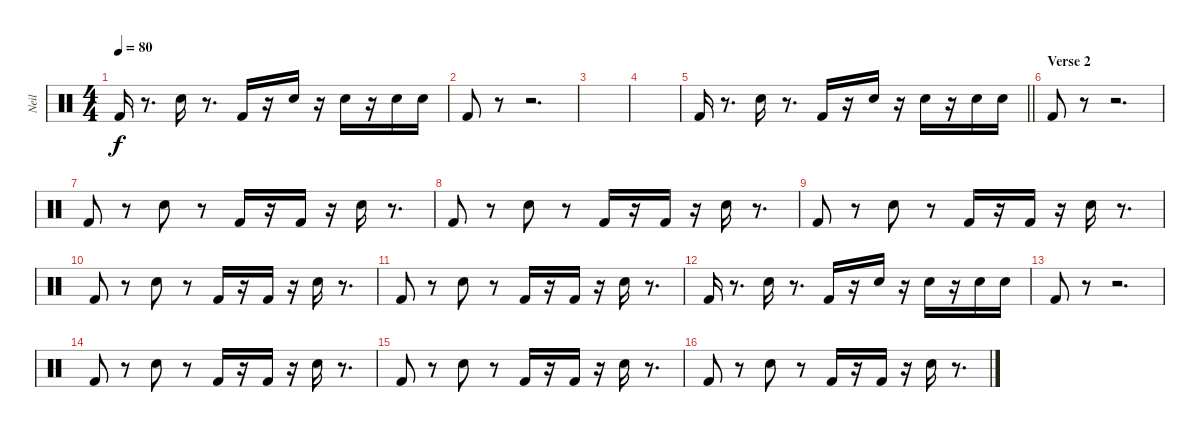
\track ("Neil" "Neil") {instrument percussion}
\staff {score}
\articulation defaults
\ts (4 4)
\tempo 80
\clef neutral
\ks c "Kick (hit) 2".16{dy f}
r.8{d} "Electric Snare (hit)".16 r.8{d} "Kick (hit) 2".16 r.16 "Electric Snare (hit)".16 r.16 "Electric Snare (hit)".16 r.16 "Electric Snare (hit)".16 "Electric Snare (hit)".16 |
"Kick (hit) 2".8 r.8 r.2{d} |
|
|
\barLineRight lightlight "Kick (hit) 2".16
r.8{d} "Electric Snare (hit)".16 r.8{d} "Kick (hit) 2".16 r.16 "Electric Snare (hit)".16 r.16 "Electric Snare (hit)".16 r.16 "Electric Snare (hit)".16 "Electric Snare (hit)".16 |
\section ("" "Verse 2")
"Kick (hit) 2".8 r.8 r.2{d} |
"Kick (hit) 2".8 r.8 "Electric Snare (hit)".8 r.8 "Kick (hit) 2".16 r.16 "Kick (hit) 2".16 r.16 "Electric Snare (hit)".16 r.8{d} |
"Kick (hit) 2".8 r.8 "Electric Snare (hit)".8 r.8 "Kick (hit) 2".16 r.16 "Kick (hit) 2".16 r.16 "Electric Snare (hit)".16 r.8{d} |
"Kick (hit) 2".8 r.8 "Electric Snare (hit)".8 r.8 "Kick (hit) 2".16 r.16 "Kick (hit) 2".16 r.16 "Electric Snare (hit)".16 r.8{d} |
"Kick (hit) 2".8 r.8 "Electric Snare (hit)".8 r.8 "Kick (hit) 2".16 r.16 "Kick (hit) 2".16 r.16 "Electric Snare (hit)".16 r.8{d} |
"Kick (hit) 2".8 r.8 "Electric Snare (hit)".8 r.8 "Kick (hit) 2".16 r.16 "Kick (hit) 2".16 r.16 "Electric Snare (hit)".16 r.8{d} |
"Kick (hit) 2".16 r.8{d} "Electric Snare (hit)".16 r.8{d} "Kick (hit) 2".16 r.16 "Electric Snare (hit)".16 r.16 "Electric Snare (hit)".16 r.16 "Electric Snare (hit)".16 "Electric Snare (hit)".16 |
"Kick (hit) 2".8 r.8 r.2{d} |
"Kick (hit) 2".8 r.8 "Electric Snare (hit)".8 r.8 "Kick (hit) 2".16 r.16 "Kick (hit) 2".16 r.16 "Electric Snare (hit)".16 r.8{d} |
"Kick (hit) 2".8 r.8 "Electric Snare (hit)".8 r.8 "Kick (hit) 2".16 r.16 "Kick (hit) 2".16 r.16 "Electric Snare (hit)".16 r.8{d} |
"Kick (hit) 2".8 r.8 "Electric Snare (hit)".8 r.8 "Kick (hit) 2".16 r.16 "Kick (hit) 2".16 r.16 "Electric Snare (hit)".16 r.8{d}
